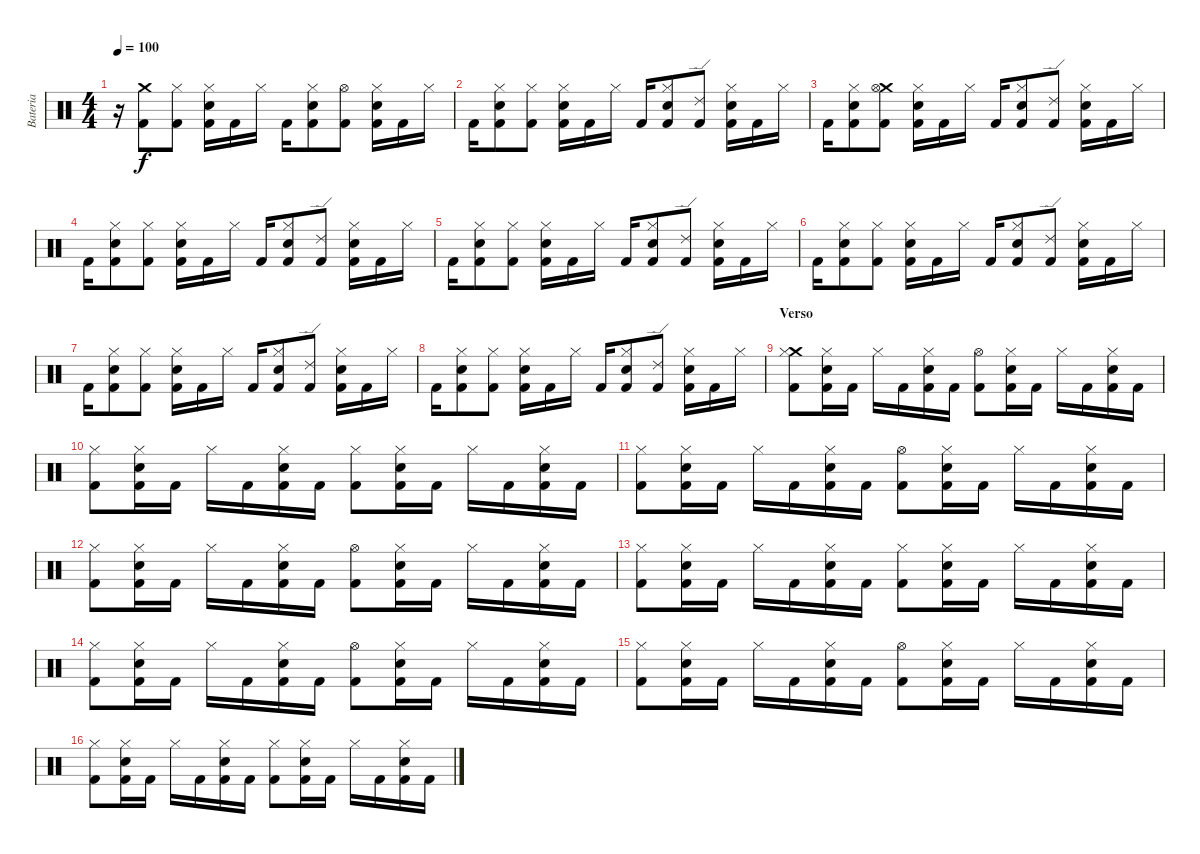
\track ("Bateria" "Bateria") {instrument percussion}
\staff {score}
\articulation defaults
\ts (4 4)
\tempo 100
\clef neutral
\ks c
r.16{dy f} ("Crash medium (hit)" "Kick (hit) 2").8 ("Hi-Hat (closed)" "Kick (hit) 2").8 ("Hi-Hat (closed)" "Electric Snare (hit)" "Kick (hit) 2").16 "Kick (hit) 2".16 "Hi-Hat (closed)".16 "Kick (hit) 2".16 ("Hi-Hat (closed)" "Electric Snare (hit)" "Kick (hit) 2").8 ("Hi-Hat (open)" "Kick (hit) 2").8 ("Hi-Hat (closed)" "Electric Snare (hit)" "Kick (hit) 2").16 "Kick (hit) 2".16 "Hi-Hat (closed)".16 |
"Kick (hit) 2".16 ("Hi-Hat (closed)" "Electric Snare (hit)" "Kick (hit) 2").8 ("Hi-Hat (closed)" "Kick (hit) 2").8 ("Hi-Hat (closed)" "Electric Snare (hit)" "Kick (hit) 2").16 "Kick (hit) 2".16 "Hi-Hat (closed)".16 "Kick (hit) 2".16 ("Hi-Hat (closed)" "Electric Snare (hit)" "Kick (hit) 2").8 ("Ride (edge) 2" "Kick (hit) 2").8 ("Hi-Hat (closed)" "Electric Snare (hit)" "Kick (hit) 2").16 "Kick (hit) 2".16 "Hi-Hat (closed)".16 |
"Kick (hit) 2".16 ("Hi-Hat (closed)" "Electric Snare (hit)" "Kick (hit) 2").8 ("Crash medium (hit)" "Hi-Hat (open)" "Kick (hit) 2").8 ("Hi-Hat (closed)" "Electric Snare (hit)" "Kick (hit) 2").16 "Kick (hit) 2".16 "Hi-Hat (closed)".16 "Kick (hit) 2".16 ("Hi-Hat (closed)" "Electric Snare (hit)" "Kick (hit) 2").8 ("Ride (edge) 2" "Kick (hit) 2").8 ("Hi-Hat (closed)" "Electric Snare (hit)" "Kick (hit) 2").16 "Kick (hit) 2".16 "Hi-Hat (closed)".16 |
"Kick (hit) 2".16 ("Hi-Hat (closed)" "Electric Snare (hit)" "Kick (hit) 2").8 ("Hi-Hat (closed)" "Kick (hit) 2").8 ("Hi-Hat (closed)" "Electric Snare (hit)" "Kick (hit) 2").16 "Kick (hit) 2".16 "Hi-Hat (closed)".16 "Kick (hit) 2".16 ("Hi-Hat (closed)" "Electric Snare (hit)" "Kick (hit) 2").8 ("Ride (edge) 2" "Kick (hit) 2").8 ("Hi-Hat (closed)" "Electric Snare (hit)" "Kick (hit) 2").16 "Kick (hit) 2".16 "Hi-Hat (closed)".16 |
"Kick (hit) 2".16 ("Hi-Hat (closed)" "Electric Snare (hit)" "Kick (hit) 2").8 ("Hi-Hat (closed)" "Kick (hit) 2").8 ("Hi-Hat (closed)" "Electric Snare (hit)" "Kick (hit) 2").16 "Kick (hit) 2".16 "Hi-Hat (closed)".16 "Kick (hit) 2".16 ("Hi-Hat (closed)" "Electric Snare (hit)" "Kick (hit) 2").8 ("Ride (edge) 2" "Kick (hit) 2").8 ("Hi-Hat (closed)" "Electric Snare (hit)" "Kick (hit) 2").16 "Kick (hit) 2".16 "Hi-Hat (closed)".16 |
"Kick (hit) 2".16 ("Hi-Hat (closed)" "Electric Snare (hit)" "Kick (hit) 2").8 ("Hi-Hat (closed)" "Kick (hit) 2").8 ("Hi-Hat (closed)" "Electric Snare (hit)" "Kick (hit) 2").16 "Kick (hit) 2".16 "Hi-Hat (closed)".16 "Kick (hit) 2".16 ("Hi-Hat (closed)" "Electric Snare (hit)" "Kick (hit) 2").8 ("Ride (edge) 2" "Kick (hit) 2").8 ("Hi-Hat (closed)" "Electric Snare (hit)" "Kick (hit) 2").16 "Kick (hit) 2".16 "Hi-Hat (closed)".16 |
"Kick (hit) 2".16 ("Hi-Hat (closed)" "Electric Snare (hit)" "Kick (hit) 2").8 ("Hi-Hat (closed)" "Kick (hit) 2").8 ("Hi-Hat (closed)" "Electric Snare (hit)" "Kick (hit) 2").16 "Kick (hit) 2".16 "Hi-Hat (closed)".16 "Kick (hit) 2".16 ("Hi-Hat (closed)" "Electric Snare (hit)" "Kick (hit) 2").8 ("Ride (edge) 2" "Kick (hit) 2").8 ("Hi-Hat (closed)" "Electric Snare (hit)" "Kick (hit) 2").16 "Kick (hit) 2".16 "Hi-Hat (closed)".16 |
"Kick (hit) 2".16 ("Hi-Hat (closed)" "Electric Snare (hit)" "Kick (hit) 2").8 ("Hi-Hat (closed)" "Kick (hit) 2").8 ("Hi-Hat (closed)" "Electric Snare (hit)" "Kick (hit) 2").16 "Kick (hit) 2".16 "Hi-Hat (closed)".16 "Kick (hit) 2".16 ("Hi-Hat (closed)" "Electric Snare (hit)" "Kick (hit) 2").8 ("Ride (edge) 2" "Kick (hit) 2").8 ("Hi-Hat (closed)" "Electric Snare (hit)" "Kick (hit) 2").16 "Kick (hit) 2".16 "Hi-Hat (closed)".16 |
\section ("" "Verso")
("Crash medium (hit)" "Hi-Hat (closed)" "Kick (hit) 2").8 ("Hi-Hat (closed)" "Electric Snare (hit)" "Kick (hit) 2").16 "Kick (hit) 2".16 "Hi-Hat (closed)".16 "Kick (hit) 2".16 ("Hi-Hat (closed)" "Electric Snare (hit)" "Kick (hit) 2").16 "Kick (hit) 2".16 ("Hi-Hat (open)" "Kick (hit) 2").8 ("Hi-Hat (closed)" "Electric Snare (hit)" "Kick (hit) 2").16 "Kick (hit) 2".16 "Hi-Hat (closed)".16 "Kick (hit) 2".16 ("Hi-Hat (closed)" "Electric Snare (hit)" "Kick (hit) 2").16 "Kick (hit) 2".16 |
("Hi-Hat (closed)" "Kick (hit) 2").8 ("Hi-Hat (closed)" "Electric Snare (hit)" "Kick (hit) 2").16 "Kick (hit) 2".16 "Hi-Hat (closed)".16 "Kick (hit) 2".16 ("Hi-Hat (closed)" "Electric Snare (hit)" "Kick (hit) 2").16 "Kick (hit) 2".16 ("Hi-Hat (closed)" "Kick (hit) 2").8 ("Hi-Hat (closed)" "Electric Snare (hit)" "Kick (hit) 2").16 "Kick (hit) 2".16 "Hi-Hat (closed)".16 "Kick (hit) 2".16 ("Hi-Hat (closed)" "Electric Snare (hit)" "Kick (hit) 2").16 "Kick (hit) 2".16 |
("Hi-Hat (closed)" "Kick (hit) 2").8 ("Hi-Hat (closed)" "Electric Snare (hit)" "Kick (hit) 2").16 "Kick (hit) 2".16 "Hi-Hat (closed)".16 "Kick (hit) 2".16 ("Hi-Hat (closed)" "Electric Snare (hit)" "Kick (hit) 2").16 "Kick (hit) 2".16 ("Hi-Hat (open)" "Kick (hit) 2").8 ("Hi-Hat (closed)" "Electric Snare (hit)" "Kick (hit) 2").16 "Kick (hit) 2".16 "Hi-Hat (closed)".16 "Kick (hit) 2".16 ("Hi-Hat (closed)" "Electric Snare (hit)" "Kick (hit) 2").16 "Kick (hit) 2".16 |
("Hi-Hat (closed)" "Kick (hit) 2").8 ("Hi-Hat (closed)" "Electric Snare (hit)" "Kick (hit) 2").16 "Kick (hit) 2".16 "Hi-Hat (closed)".16 "Kick (hit) 2".16 ("Hi-Hat (closed)" "Electric Snare (hit)" "Kick (hit) 2").16 "Kick (hit) 2".16 ("Hi-Hat (open)" "Kick (hit) 2").8 ("Hi-Hat (closed)" "Electric Snare (hit)" "Kick (hit) 2").16 "Kick (hit) 2".16 "Hi-Hat (closed)".16 "Kick (hit) 2".16 ("Hi-Hat (closed)" "Electric Snare (hit)" "Kick (hit) 2").16 "Kick (hit) 2".16 |
("Hi-Hat (closed)" "Kick (hit) 2").8 ("Hi-Hat (closed)" "Electric Snare (hit)" "Kick (hit) 2").16 "Kick (hit) 2".16 "Hi-Hat (closed)".16 "Kick (hit) 2".16 ("Hi-Hat (closed)" "Electric Snare (hit)" "Kick (hit) 2").16 "Kick (hit) 2".16 ("Hi-Hat (closed)" "Kick (hit) 2").8 ("Hi-Hat (closed)" "Electric Snare (hit)" "Kick (hit) 2").16 "Kick (hit) 2".16 "Hi-Hat (closed)".16 "Kick (hit) 2".16 ("Hi-Hat (closed)" "Electric Snare (hit)" "Kick (hit) 2").16 "Kick (hit) 2".16 |
("Hi-Hat (closed)" "Kick (hit) 2").8 ("Hi-Hat (closed)" "Electric Snare (hit)" "Kick (hit) 2").16 "Kick (hit) 2".16 "Hi-Hat (closed)".16 "Kick (hit) 2".16 ("Hi-Hat (closed)" "Electric Snare (hit)" "Kick (hit) 2").16 "Kick (hit) 2".16 ("Hi-Hat (open)" "Kick (hit) 2").8 ("Hi-Hat (closed)" "Electric Snare (hit)" "Kick (hit) 2").16 "Kick (hit) 2".16 "Hi-Hat (closed)".16 "Kick (hit) 2".16 ("Hi-Hat (closed)" "Electric Snare (hit)" "Kick (hit) 2").16 "Kick (hit) 2".16 |
("Hi-Hat (closed)" "Kick (hit) 2").8 ("Hi-Hat (closed)" "Electric Snare (hit)" "Kick (hit) 2").16 "Kick (hit) 2".16 "Hi-Hat (closed)".16 "Kick (hit) 2".16 ("Hi-Hat (closed)" "Electric Snare (hit)" "Kick (hit) 2").16 "Kick (hit) 2".16 ("Hi-Hat (open)" "Kick (hit) 2").8 ("Hi-Hat (closed)" "Electric Snare (hit)" "Kick (hit) 2").16 "Kick (hit) 2".16 "Hi-Hat (closed)".16 "Kick (hit) 2".16 ("Hi-Hat (closed)" "Electric Snare (hit)" "Kick (hit) 2").16 "Kick (hit) 2".16 |
("Hi-Hat (closed)" "Kick (hit) 2").8 ("Hi-Hat (closed)" "Electric Snare (hit)" "Kick (hit) 2").16 "Kick (hit) 2".16 "Hi-Hat (closed)".16 "Kick (hit) 2".16 ("Hi-Hat (closed)" "Electric Snare (hit)" "Kick (hit) 2").16 "Kick (hit) 2".16 ("Hi-Hat (closed)" "Kick (hit) 2").8 ("Hi-Hat (closed)" "Electric Snare (hit)" "Kick (hit) 2").16 "Kick (hit) 2".16 "Hi-Hat (closed)".16 "Kick (hit) 2".16 ("Hi-Hat (closed)" "Electric Snare (hit)" "Kick (hit) 2").16 "Kick (hit) 2".16
